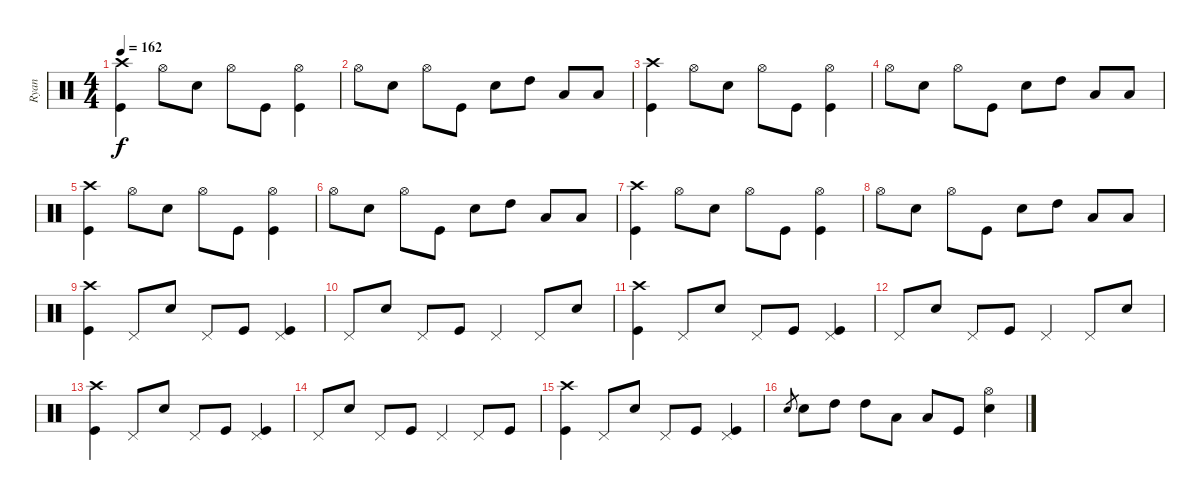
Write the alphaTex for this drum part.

\track ("Ryan" "Ryan") {instrument percussion}
\staff {score}
\articulation defaults
\ts (4 4)
\tempo 162
\clef neutral
\ks c
("Crash high (hit)" "Kick (hit)").4{dy f} "Hi-Hat (open)".8 "Electric Snare (hit)".8 "Hi-Hat (open)".8 "Kick (hit)".8 ("Hi-Hat (open)" "Kick (hit)").4 |
"Hi-Hat (open)".8 "Electric Snare (hit)".8 "Hi-Hat (open)".8 "Kick (hit)".8 "Electric Snare (hit)".8 "High Tom (hit)".8 "Low Floor Tom (hit)".8 "Low Floor Tom (hit)".8 |
("Crash high (hit)" "Kick (hit)").4 "Hi-Hat (open)".8 "Electric Snare (hit)".8 "Hi-Hat (open)".8 "Kick (hit)".8 ("Hi-Hat (open)" "Kick (hit)").4 |
"Hi-Hat (open)".8 "Electric Snare (hit)".8 "Hi-Hat (open)".8 "Kick (hit)".8 "Electric Snare (hit)".8 "High Tom (hit)".8 "Low Floor Tom (hit)".8 "Low Floor Tom (hit)".8 |
("Crash high (hit)" "Kick (hit)").4 "Hi-Hat (open)".8 "Electric Snare (hit)".8 "Hi-Hat (open)".8 "Kick (hit)".8 ("Hi-Hat (open)" "Kick (hit)").4 |
"Hi-Hat (open)".8 "Electric Snare (hit)".8 "Hi-Hat (open)".8 "Kick (hit)".8 "Electric Snare (hit)".8 "High Tom (hit)".8 "Low Floor Tom (hit)".8 "Low Floor Tom (hit)".8 |
("Crash high (hit)" "Kick (hit)").4 "Hi-Hat (open)".8 "Electric Snare (hit)".8 "Hi-Hat (open)".8 "Kick (hit)".8 ("Hi-Hat (open)" "Kick (hit)").4 |
"Hi-Hat (open)".8 "Electric Snare (hit)".8 "Hi-Hat (open)".8 "Kick (hit)".8 "Electric Snare (hit)".8 "High Tom (hit)".8 "Low Floor Tom (hit)".8 "Low Floor Tom (hit)".8 |
("Crash high (hit)" "Kick (hit)").4 "Pedal Hi-Hat (hit)".8 "Electric Snare (hit)".8 "Pedal Hi-Hat (hit)".8 "Kick (hit)".8 ("Pedal Hi-Hat (hit)" "Kick (hit)").4 |
"Pedal Hi-Hat (hit)".8 "Electric Snare (hit)".8 "Pedal Hi-Hat (hit)".8 "Kick (hit)".8 "Pedal Hi-Hat (hit)".4 "Pedal Hi-Hat (hit)".8 "Electric Snare (hit)".8 |
("Crash high (hit)" "Kick (hit)").4 "Pedal Hi-Hat (hit)".8 "Electric Snare (hit)".8 "Pedal Hi-Hat (hit)".8 "Kick (hit)".8 ("Pedal Hi-Hat (hit)" "Kick (hit)").4 |
"Pedal Hi-Hat (hit)".8 "Electric Snare (hit)".8 "Pedal Hi-Hat (hit)".8 "Kick (hit)".8 "Pedal Hi-Hat (hit)".4 "Pedal Hi-Hat (hit)".8 "Electric Snare (hit)".8 |
("Crash high (hit)" "Kick (hit)").4 "Pedal Hi-Hat (hit)".8 "Electric Snare (hit)".8 "Pedal Hi-Hat (hit)".8 "Kick (hit)".8 ("Pedal Hi-Hat (hit)" "Kick (hit)").4 |
"Pedal Hi-Hat (hit)".8 "Electric Snare (hit)".8 "Pedal Hi-Hat (hit)".8 "Kick (hit)".8 "Pedal Hi-Hat (hit)".4 "Pedal Hi-Hat (hit)".8 "Kick (hit)".8 |
("Crash high (hit)" "Kick (hit)").4 "Pedal Hi-Hat (hit)".8 "Electric Snare (hit)".8 "Pedal Hi-Hat (hit)".8 "Kick (hit)".8 ("Pedal Hi-Hat (hit)" "Kick (hit)").4 |
"Electric Snare (hit)".8{gr} "Electric Snare (hit)".8 "High Tom (hit)".8 "High Tom (hit)".8 "Low Floor Tom (hit)".8 "Low Floor Tom (hit)".8 "Kick (hit)".8 ("Hi-Hat (open)" "Electric Snare (hit)").4
